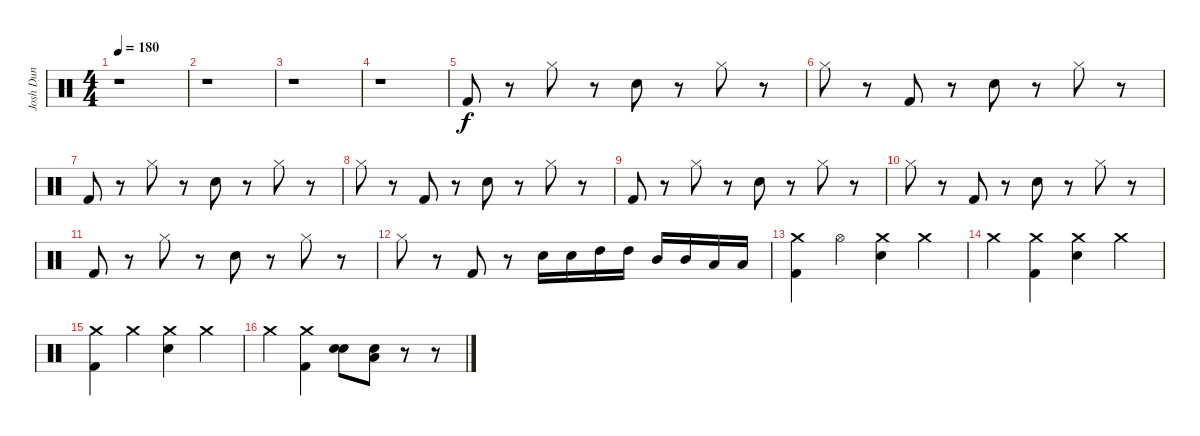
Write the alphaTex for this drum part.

\track ("Josh Dun" "Josh Dun") {instrument percussion}
\staff {score}
\articulation defaults
\ts (4 4)
\tempo 180
\clef neutral
\ks c
r.1{dy f} |
r.1 |
r.1 |
r.1 |
"Kick (hit) 2".8 r.8 "Hi-Hat (closed)".8 r.8 "Snare (hit) 2".8 r.8 "Hi-Hat (closed)".8 r.8 |
"Hi-Hat (closed)".8 r.8 "Kick (hit) 2".8 r.8 "Snare (hit) 2".8 r.8 "Hi-Hat (closed)".8 r.8 |
"Kick (hit) 2".8 r.8 "Hi-Hat (closed)".8 r.8 "Snare (hit) 2".8 r.8 "Hi-Hat (closed)".8 r.8 |
"Hi-Hat (closed)".8 r.8 "Kick (hit) 2".8 r.8 "Snare (hit) 2".8 r.8 "Hi-Hat (closed)".8 r.8 |
"Kick (hit) 2".8 r.8 "Hi-Hat (closed)".8 r.8 "Snare (hit) 2".8 r.8 "Hi-Hat (closed)".8 r.8 |
"Hi-Hat (closed)".8 r.8 "Kick (hit) 2".8 r.8 "Snare (hit) 2".8 r.8 "Hi-Hat (closed)".8 r.8 |
"Kick (hit) 2".8 r.8 "Hi-Hat (closed)".8 r.8 "Snare (hit) 2".8 r.8 "Hi-Hat (closed)".8 r.8 |
"Hi-Hat (closed)".8 r.8 "Kick (hit) 2".8 r.8 "Snare (hit) 2".16 "Snare (hit) 2".16 "High Tom (hit)".16 "High Tom (hit)".16 "Mid Tom (hit)".16 "Mid Tom (hit)".16 "Low Floor Tom (hit)".16 "Low Floor Tom (hit)".16 |
("Crash medium (hit)" "Kick (hit) 2").4 "Hi-Hat (open)".4 ("Crash medium (hit)" "Snare (hit) 2").4 "Crash medium (hit)".4 |
"Crash medium (hit)".4 ("Crash medium (hit)" "Kick (hit) 2").4 ("Crash medium (hit)" "Snare (hit) 2").4 "Crash medium (hit)".4 |
("Crash medium (hit)" "Kick (hit) 2").4 "Crash medium (hit)".4 ("Crash medium (hit)" "Snare (hit) 2").4 "Crash medium (hit)".4 |
"Crash medium (hit)".4 ("Crash medium (hit)" "Kick (hit) 2").4 ("Electric Snare (hit)" "Snare (hit) 2").8 ("Low Floor Tom (hit)" "Snare (hit) 2").8 r.8 r.8
